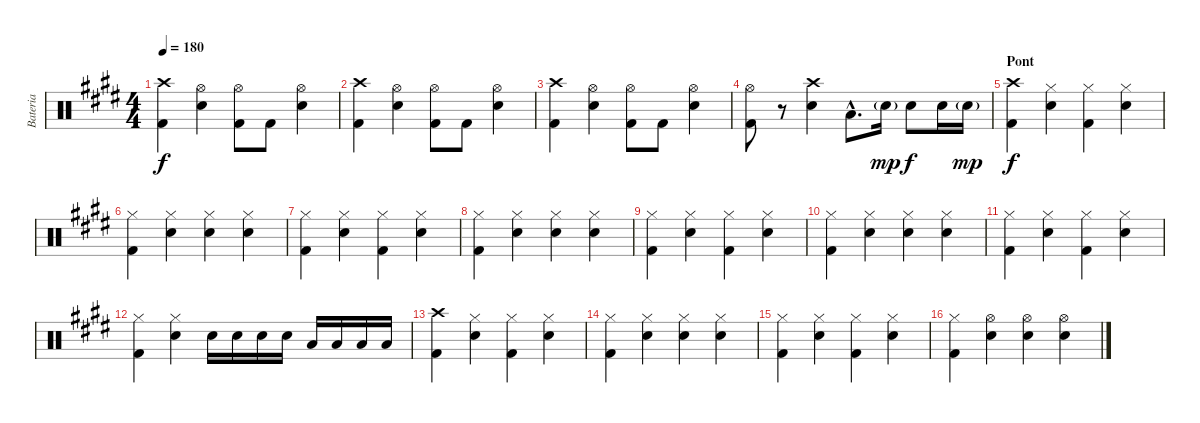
\track ("Bateria" "Bateria") {instrument percussion}
\staff {score}
\articulation defaults
\ts (4 4)
\tempo 180
\clef neutral
\ks e
("Crash high (hit)" "Kick (hit) 2").4{dy f} ("Hi-Hat (open)" "Electric Snare (hit)").4 ("Hi-Hat (open)" "Kick (hit) 2").8 "Kick (hit) 2".8 ("Hi-Hat (open)" "Electric Snare (hit)").4 |
("Crash high (hit)" "Kick (hit) 2").4 ("Hi-Hat (open)" "Electric Snare (hit)").4 ("Hi-Hat (open)" "Kick (hit) 2").8 "Kick (hit) 2".8 ("Hi-Hat (open)" "Electric Snare (hit)").4 |
("Crash high (hit)" "Kick (hit) 2").4 ("Hi-Hat (open)" "Electric Snare (hit)").4 ("Hi-Hat (open)" "Kick (hit) 2").8 "Kick (hit) 2".8 ("Hi-Hat (open)" "Electric Snare (hit)").4 |
("Hi-Hat (open)" "Kick (hit) 2").8 r.8 ("Crash high (hit)" "Electric Snare (hit)").4 "Low Tom (hit)"{hac}.8{d} "Electric Snare (hit)"{g}.16{dy mp} "Electric Snare (hit)".8{dy f} "Electric Snare (hit)".16 "Electric Snare (hit)"{g}.16{dy mp} |
\section ("" "Pont")
("Crash high (hit)" "Kick (hit) 2").4{dy f} ("Hi-Hat (closed)" "Electric Snare (hit)").4 ("Hi-Hat (closed)" "Kick (hit) 2").4 ("Hi-Hat (closed)" "Electric Snare (hit)").4 |
("Hi-Hat (closed)" "Kick (hit) 2").4 ("Hi-Hat (closed)" "Electric Snare (hit)").4 ("Hi-Hat (closed)" "Electric Snare (hit)").4 ("Hi-Hat (closed)" "Electric Snare (hit)").4 |
("Hi-Hat (closed)" "Kick (hit) 2").4 ("Hi-Hat (closed)" "Electric Snare (hit)").4 ("Hi-Hat (closed)" "Kick (hit) 2").4 ("Hi-Hat (closed)" "Electric Snare (hit)").4 |
("Hi-Hat (closed)" "Kick (hit) 2").4 ("Hi-Hat (closed)" "Electric Snare (hit)").4 ("Hi-Hat (closed)" "Electric Snare (hit)").4 ("Hi-Hat (closed)" "Electric Snare (hit)").4 |
("Hi-Hat (closed)" "Kick (hit) 2").4 ("Hi-Hat (closed)" "Electric Snare (hit)").4 ("Hi-Hat (closed)" "Kick (hit) 2").4 ("Hi-Hat (closed)" "Electric Snare (hit)").4 |
("Hi-Hat (closed)" "Kick (hit) 2").4 ("Hi-Hat (closed)" "Electric Snare (hit)").4 ("Hi-Hat (closed)" "Electric Snare (hit)").4 ("Hi-Hat (closed)" "Electric Snare (hit)").4 |
("Hi-Hat (closed)" "Kick (hit) 2").4 ("Hi-Hat (closed)" "Electric Snare (hit)").4 ("Hi-Hat (closed)" "Kick (hit) 2").4 ("Hi-Hat (closed)" "Electric Snare (hit)").4 |
("Hi-Hat (closed)" "Kick (hit) 2").4 ("Hi-Hat (closed)" "Electric Snare (hit)").4 "Electric Snare (hit)".16 "Electric Snare (hit)".16 "Electric Snare (hit)".16 "Electric Snare (hit)".16 "Low Tom (hit)".16 "Low Tom (hit)".16 "Low Tom (hit)".16 "Low Tom (hit)".16 |
("Crash high (hit)" "Kick (hit) 2").4 ("Hi-Hat (closed)" "Electric Snare (hit)").4 ("Hi-Hat (closed)" "Kick (hit) 2").4 ("Hi-Hat (closed)" "Electric Snare (hit)").4 |
("Hi-Hat (closed)" "Kick (hit) 2").4 ("Hi-Hat (closed)" "Electric Snare (hit)").4 ("Hi-Hat (closed)" "Electric Snare (hit)").4 ("Hi-Hat (closed)" "Electric Snare (hit)").4 |
("Hi-Hat (closed)" "Kick (hit) 2").4 ("Hi-Hat (closed)" "Electric Snare (hit)").4 ("Hi-Hat (closed)" "Kick (hit) 2").4 ("Hi-Hat (closed)" "Electric Snare (hit)").4 |
("Hi-Hat (closed)" "Kick (hit) 2").4 ("Hi-Hat (open)" "Electric Snare (hit)").4 ("Hi-Hat (open)" "Electric Snare (hit)").4 ("Hi-Hat (open)" "Electric Snare (hit)").4
